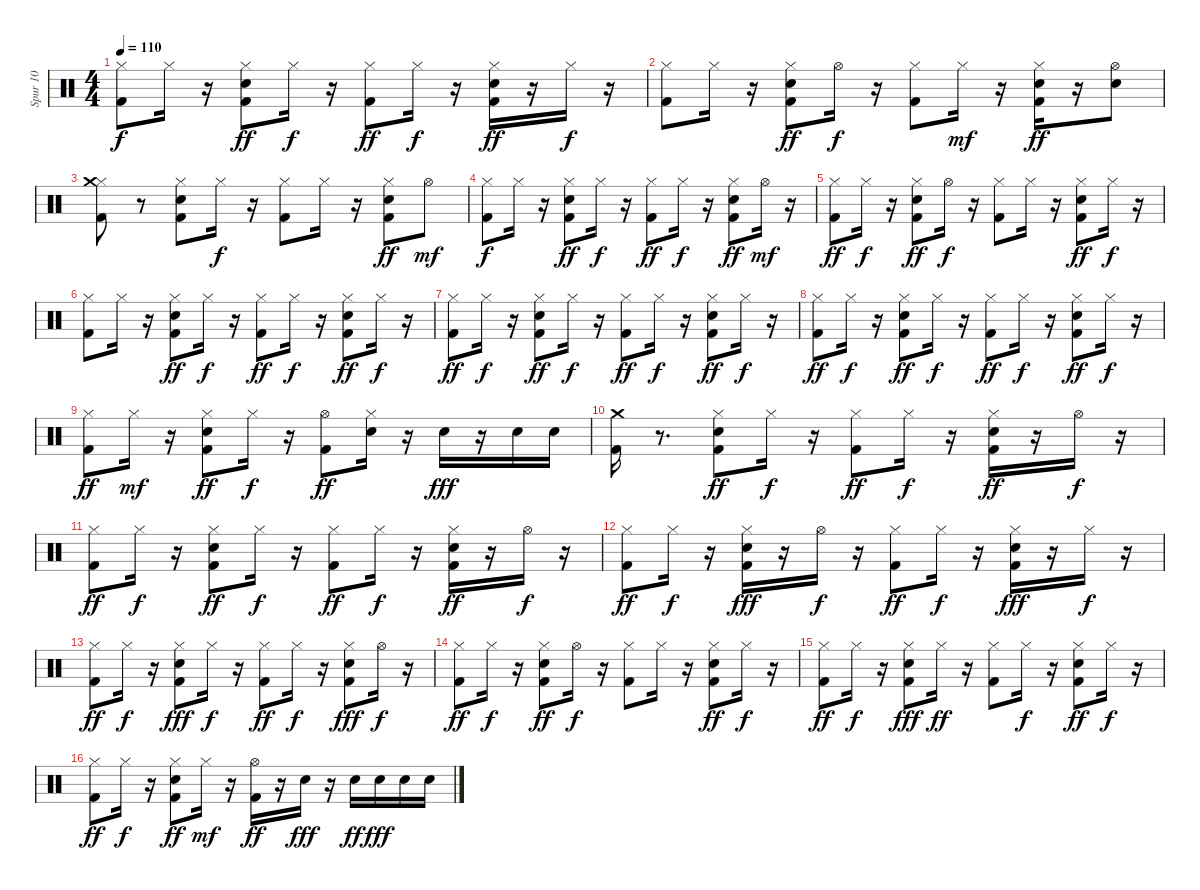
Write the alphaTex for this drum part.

\track ("Spur 10" "Spur 10") {instrument percussion}
\staff {score}
\articulation defaults
\ts (4 4)
\tempo 110
\clef neutral
\ks c
("Hi-Hat (closed)" "Kick (hit) 2").8{dy f} "Hi-Hat (closed)".16 r.16 ("Kick (hit) 2" "Snare (hit) 2" "Hi-Hat (closed)").8{dy ff} "Hi-Hat (closed)".16{dy f} r.16 ("Kick (hit) 2" "Hi-Hat (closed)").8{dy ff} "Hi-Hat (closed)".16{dy f} r.16 ("Kick (hit) 2" "Snare (hit) 2" "Hi-Hat (closed)").16{dy ff} r.16 "Hi-Hat (closed)".16{dy f} r.16 |
("Kick (hit) 2" "Hi-Hat (closed)").8 "Hi-Hat (closed)".16 r.16 ("Kick (hit) 2" "Snare (hit) 2" "Hi-Hat (closed)").8{dy ff} "Hi-Hat (open)".16{dy f} r.16 ("Hi-Hat (closed)" "Kick (hit) 2").8 "Hi-Hat (closed)".16{dy mf} r.16 ("Kick (hit) 2" "Snare (hit) 2" "Hi-Hat (closed)").16{dy ff} r.16 ("Hi-Hat (open)" "Snare (hit) 2").8 |
("Kick (hit) 2" "Hi-Hat (closed)" "Crash medium (hit)").8 r.8 ("Hi-Hat (closed)" "Snare (hit) 2" "Kick (hit) 2").8 "Hi-Hat (closed)".16{dy f} r.16 ("Kick (hit) 2" "Hi-Hat (closed)").8 "Hi-Hat (closed)".16 r.16 ("Snare (hit) 2" "Kick (hit) 2" "Hi-Hat (closed)").8{dy ff} "Hi-Hat (open)".8{dy mf} |
("Kick (hit) 2" "Hi-Hat (closed)").8{dy f} "Hi-Hat (closed)".16 r.16 ("Snare (hit) 2" "Kick (hit) 2" "Hi-Hat (closed)").8{dy ff} "Hi-Hat (closed)".16{dy f} r.16 ("Kick (hit) 2" "Hi-Hat (closed)").8{dy ff} "Hi-Hat (closed)".16{dy f} r.16 ("Snare (hit) 2" "Kick (hit) 2" "Hi-Hat (closed)").8{dy ff} "Hi-Hat (open)".16{dy mf} r.16 |
("Kick (hit) 2" "Hi-Hat (closed)").8{dy ff} "Hi-Hat (closed)".16{dy f} r.16 ("Snare (hit) 2" "Kick (hit) 2" "Hi-Hat (closed)").8{dy ff} "Hi-Hat (open)".16{dy f} r.16 ("Kick (hit) 2" "Hi-Hat (closed)").8 "Hi-Hat (closed)".16 r.16 ("Snare (hit) 2" "Kick (hit) 2" "Hi-Hat (closed)").8{dy ff} "Hi-Hat (closed)".16{dy f} r.16 |
("Kick (hit) 2" "Hi-Hat (closed)").8 "Hi-Hat (closed)".16 r.16 ("Snare (hit) 2" "Kick (hit) 2" "Hi-Hat (closed)").8{dy ff} "Hi-Hat (closed)".16{dy f} r.16 ("Kick (hit) 2" "Hi-Hat (closed)").8{dy ff} "Hi-Hat (closed)".16{dy f} r.16 ("Snare (hit) 2" "Kick (hit) 2" "Hi-Hat (closed)").8{dy ff} "Hi-Hat (closed)".16{dy f} r.16 |
("Kick (hit) 2" "Hi-Hat (closed)").8{dy ff} "Hi-Hat (closed)".16{dy f} r.16 ("Snare (hit) 2" "Kick (hit) 2" "Hi-Hat (closed)").8{dy ff} "Hi-Hat (closed)".16{dy f} r.16 ("Kick (hit) 2" "Hi-Hat (closed)").8{dy ff} "Hi-Hat (closed)".16{dy f} r.16 ("Kick (hit) 2" "Snare (hit) 2" "Hi-Hat (closed)").8{dy ff} "Hi-Hat (closed)".16{dy f} r.16 |
("Kick (hit) 2" "Hi-Hat (closed)").8{dy ff} "Hi-Hat (closed)".16{dy f} r.16 ("Snare (hit) 2" "Kick (hit) 2" "Hi-Hat (closed)").8{dy ff} "Hi-Hat (closed)".16{dy f} r.16 ("Kick (hit) 2" "Hi-Hat (closed)").8{dy ff} "Hi-Hat (closed)".16{dy f} r.16 ("Snare (hit) 2" "Kick (hit) 2" "Hi-Hat (closed)").8{dy ff} "Hi-Hat (closed)".16{dy f} r.16 |
("Kick (hit) 2" "Hi-Hat (closed)").8{dy ff} "Hi-Hat (closed)".16{dy mf} r.16 ("Kick (hit) 2" "Snare (hit) 2" "Hi-Hat (closed)").8{dy ff} "Hi-Hat (closed)".16{dy f} r.16 ("Kick (hit) 2" "Hi-Hat (open)").8{dy ff} ("Hi-Hat (closed)" "Snare (hit) 2").16 r.16 "Snare (hit) 2".16{dy fff} r.16 "Snare (hit) 2".16 "Snare (hit) 2".16 |
("Kick (hit) 2" "Crash medium (hit)").16 r.8{d} ("Snare (hit) 2" "Hi-Hat (closed)" "Kick (hit) 2").8{dy ff} "Hi-Hat (closed)".16{dy f} r.16 ("Kick (hit) 2" "Hi-Hat (closed)").8{dy ff} "Hi-Hat (closed)".16{dy f} r.16 ("Snare (hit) 2" "Kick (hit) 2" "Hi-Hat (closed)").16{dy ff} r.16 "Hi-Hat (open)".16{dy f} r.16 |
("Kick (hit) 2" "Hi-Hat (closed)").8{dy ff} "Hi-Hat (closed)".16{dy f} r.16 ("Snare (hit) 2" "Kick (hit) 2" "Hi-Hat (closed)").8{dy ff} "Hi-Hat (closed)".16{dy f} r.16 ("Kick (hit) 2" "Hi-Hat (closed)").8{dy ff} "Hi-Hat (closed)".16{dy f} r.16 ("Kick (hit) 2" "Snare (hit) 2" "Hi-Hat (closed)").16{dy ff} r.16 "Hi-Hat (open)".16{dy f} r.16 |
("Kick (hit) 2" "Hi-Hat (closed)").8{dy ff} "Hi-Hat (closed)".16{dy f} r.16 ("Kick (hit) 2" "Snare (hit) 2" "Hi-Hat (closed)").16{dy fff} r.16 "Hi-Hat (open)".16{dy f} r.16 ("Kick (hit) 2" "Hi-Hat (closed)").8{dy ff} "Hi-Hat (closed)".16{dy f} r.16 ("Snare (hit) 2" "Kick (hit) 2" "Hi-Hat (closed)").16{dy fff} r.16 "Hi-Hat (closed)".16{dy f} r.16 |
("Kick (hit) 2" "Hi-Hat (closed)").8{dy ff} "Hi-Hat (closed)".16{dy f} r.16 ("Kick (hit) 2" "Snare (hit) 2" "Hi-Hat (closed)").8{dy fff} "Hi-Hat (closed)".16{dy f} r.16 ("Hi-Hat (closed)" "Kick (hit) 2").8{dy ff} "Hi-Hat (closed)".16{dy f} r.16 ("Kick (hit) 2" "Snare (hit) 2" "Hi-Hat (closed)").8{dy fff} "Hi-Hat (open)".16{dy f} r.16 |
("Hi-Hat (closed)" "Kick (hit) 2").8{dy ff} "Hi-Hat (closed)".16{dy f} r.16 ("Kick (hit) 2" "Snare (hit) 2" "Hi-Hat (closed)").8{dy ff} "Hi-Hat (open)".16{dy f} r.16 ("Kick (hit) 2" "Hi-Hat (closed)").8 "Hi-Hat (closed)".16 r.16 ("Snare (hit) 2" "Kick (hit) 2" "Hi-Hat (closed)").8{dy ff} "Hi-Hat (closed)".16{dy f} r.16 |
("Kick (hit) 2" "Hi-Hat (closed)").8{dy ff} "Hi-Hat (closed)".16{dy f} r.16 ("Kick (hit) 2" "Snare (hit) 2" "Hi-Hat (closed)").8{dy fff} "Hi-Hat (closed)".16{dy ff} r.16 ("Kick (hit) 2" "Hi-Hat (closed)").8 "Hi-Hat (closed)".16{dy f} r.16 ("Kick (hit) 2" "Snare (hit) 2" "Hi-Hat (closed)").8{dy ff} "Hi-Hat (closed)".16{dy f} r.16 |
("Kick (hit) 2" "Hi-Hat (closed)").8{dy ff} "Hi-Hat (closed)".16{dy f} r.16 ("Snare (hit) 2" "Kick (hit) 2" "Hi-Hat (closed)").8{dy ff} "Hi-Hat (closed)".16{dy mf} r.16 ("Hi-Hat (open)" "Kick (hit) 2").16{dy ff} r.16 "Snare (hit) 2".16{dy fff} r.16 "Snare (hit) 2".16{dy ff} "Snare (hit) 2".16{dy fff} "Snare (hit) 2".16 "Snare (hit) 2".16
